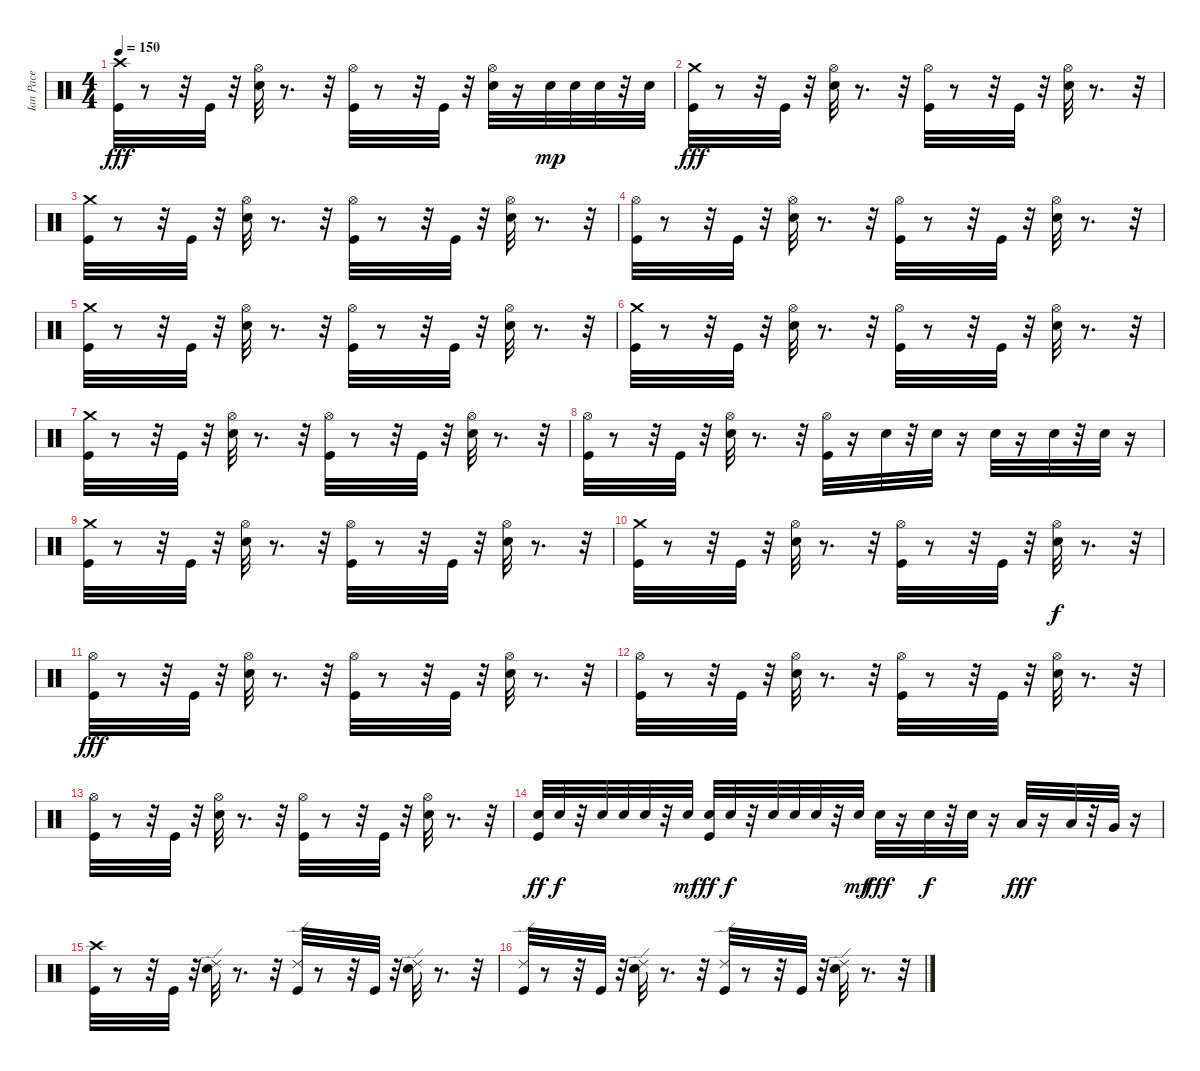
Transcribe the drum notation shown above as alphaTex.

\track ("Ian Pace" "Ian Pace") {instrument percussion}
\staff {score}
\articulation defaults
\ts (4 4)
\tempo 150
\clef neutral
\ks c
("Kick (hit)" "Crash high (hit)").32{dy fff} r.8 r.32 "Kick (hit)".32 r.32 ("Electric Snare (hit)" "Hi-Hat (open)").32 r.8{d} r.32 ("Kick (hit)" "Hi-Hat (open)").32 r.8 r.32 "Kick (hit)".32 r.32 ("Electric Snare (hit)" "Hi-Hat (open)").32 r.16 "Electric Snare (hit)".32{dy mp} "Electric Snare (hit)".32 "Electric Snare (hit)".32 r.32 "Electric Snare (hit)".32 |
("Crash medium (hit)" "Kick (hit)").32{dy fff} r.8 r.32 "Kick (hit)".32 r.32 ("Electric Snare (hit)" "Hi-Hat (open)").32 r.8{d} r.32 ("Hi-Hat (open)" "Kick (hit)").32 r.8 r.32 "Kick (hit)".32 r.32 ("Hi-Hat (open)" "Electric Snare (hit)").32 r.8{d} r.32 |
("Kick (hit)" "Crash medium (hit)").32 r.8 r.32 "Kick (hit)".32 r.32 ("Electric Snare (hit)" "Hi-Hat (open)").32 r.8{d} r.32 ("Hi-Hat (open)" "Kick (hit)").32 r.8 r.32 "Kick (hit)".32 r.32 ("Hi-Hat (open)" "Electric Snare (hit)").32 r.8{d} r.32 |
("Kick (hit)" "Hi-Hat (open)").32 r.8 r.32 "Kick (hit)".32 r.32 ("Electric Snare (hit)" "Hi-Hat (open)").32 r.8{d} r.32 ("Kick (hit)" "Hi-Hat (open)").32 r.8 r.32 "Kick (hit)".32 r.32 ("Electric Snare (hit)" "Hi-Hat (open)").32 r.8{d} r.32 |
("Crash medium (hit)" "Kick (hit)").32 r.8 r.32 "Kick (hit)".32 r.32 ("Hi-Hat (open)" "Electric Snare (hit)").32 r.8{d} r.32 ("Hi-Hat (open)" "Kick (hit)").32 r.8 r.32 "Kick (hit)".32 r.32 ("Electric Snare (hit)" "Hi-Hat (open)").32 r.8{d} r.32 |
("Crash medium (hit)" "Kick (hit)").32 r.8 r.32 "Kick (hit)".32 r.32 ("Electric Snare (hit)" "Hi-Hat (open)").32 r.8{d} r.32 ("Hi-Hat (open)" "Kick (hit)").32 r.8 r.32 "Kick (hit)".32 r.32 ("Electric Snare (hit)" "Hi-Hat (open)").32 r.8{d} r.32 |
("Crash medium (hit)" "Kick (hit)").32 r.8 r.32 "Kick (hit)".32 r.32 ("Hi-Hat (open)" "Electric Snare (hit)").32 r.8{d} r.32 ("Hi-Hat (open)" "Kick (hit)").32 r.8 r.32 "Kick (hit)".32 r.32 ("Hi-Hat (open)" "Electric Snare (hit)").32 r.8{d} r.32 |
("Kick (hit)" "Hi-Hat (open)").32 r.8 r.32 "Kick (hit)".32 r.32 ("Electric Snare (hit)" "Hi-Hat (open)").32 r.8{d} r.32 ("Hi-Hat (open)" "Kick (hit)").32 r.16 "Electric Snare (hit)".32 r.32 "Electric Snare (hit)".32 r.16 "Electric Snare (hit)".32 r.16 "Electric Snare (hit)".32 r.32 "Electric Snare (hit)".32 r.16 |
("Kick (hit)" "Crash medium (hit)").32 r.8 r.32 "Kick (hit)".32 r.32 ("Electric Snare (hit)" "Hi-Hat (open)").32 r.8{d} r.32 ("Hi-Hat (open)" "Kick (hit)").32 r.8 r.32 "Kick (hit)".32 r.32 ("Hi-Hat (open)" "Electric Snare (hit)").32 r.8{d} r.32 |
("Crash medium (hit)" "Kick (hit)").32 r.8 r.32 "Kick (hit)".32 r.32 ("Hi-Hat (open)" "Electric Snare (hit)").32 r.8{d} r.32 ("Hi-Hat (open)" "Kick (hit)").32 r.8 r.32 "Kick (hit)".32 r.32 ("Hi-Hat (open)" "Electric Snare (hit)").32{dy f} r.8{d} r.32 |
("Kick (hit)" "Hi-Hat (open)").32{dy fff} r.8 r.32 "Kick (hit)".32 r.32 ("Electric Snare (hit)" "Hi-Hat (open)").32 r.8{d} r.32 ("Hi-Hat (open)" "Kick (hit)").32 r.8 r.32 "Kick (hit)".32 r.32 ("Electric Snare (hit)" "Hi-Hat (open)").32 r.8{d} r.32 |
("Kick (hit)" "Hi-Hat (open)").32 r.8 r.32 "Kick (hit)".32 r.32 ("Electric Snare (hit)" "Hi-Hat (open)").32 r.8{d} r.32 ("Kick (hit)" "Hi-Hat (open)").32 r.8 r.32 "Kick (hit)".32 r.32 ("Hi-Hat (open)" "Electric Snare (hit)").32 r.8{d} r.32 |
("Hi-Hat (open)" "Kick (hit)").32 r.8 r.32 "Kick (hit)".32 r.32 ("Hi-Hat (open)" "Electric Snare (hit)").32 r.8{d} r.32 ("Hi-Hat (open)" "Kick (hit)").32 r.8 r.32 "Kick (hit)".32 r.32 ("Electric Snare (hit)" "Hi-Hat (open)").32 r.8{d} r.32 |
("Kick (hit)" "Electric Snare (hit)").32{dy ff} "Electric Snare (hit)".32{dy f} r.32 "Electric Snare (hit)".32 "Electric Snare (hit)".32 "Electric Snare (hit)".32 r.32 "Electric Snare (hit)".32{dy mf} ("Kick (hit)" "Electric Snare (hit)").32{dy ff} "Electric Snare (hit)".32{dy f} r.32 "Electric Snare (hit)".32 "Electric Snare (hit)".32 "Electric Snare (hit)".32 r.32 "Electric Snare (hit)".32{dy mf} "Electric Snare (hit)".32{dy fff} r.16 "Electric Snare (hit)".32{dy f} r.32 "Electric Snare (hit)".32 r.16 "Low Tom (hit)".32{dy fff} r.16 "Low Tom (hit)".32 r.32 "Very Low Tom (hit)".32 r.16 |
("Kick (hit)" "Crash high (hit)").32 r.8 r.32 "Kick (hit)".32 r.32 ("Ride (edge) 2" "Electric Snare (hit)").32 r.8{d} r.32 ("Ride (edge) 2" "Kick (hit)").32 r.8 r.32 "Kick (hit)".32 r.32 ("Electric Snare (hit)" "Ride (edge) 2").32 r.8{d} r.32 |
("Kick (hit)" "Ride (edge) 2").32 r.8 r.32 "Kick (hit)".32 r.32 ("Ride (edge) 2" "Electric Snare (hit)").32 r.8{d} r.32 ("Kick (hit)" "Ride (edge) 2").32 r.8 r.32 "Kick (hit)".32 r.32 ("Electric Snare (hit)" "Ride (edge) 2").32 r.8{d} r.32
